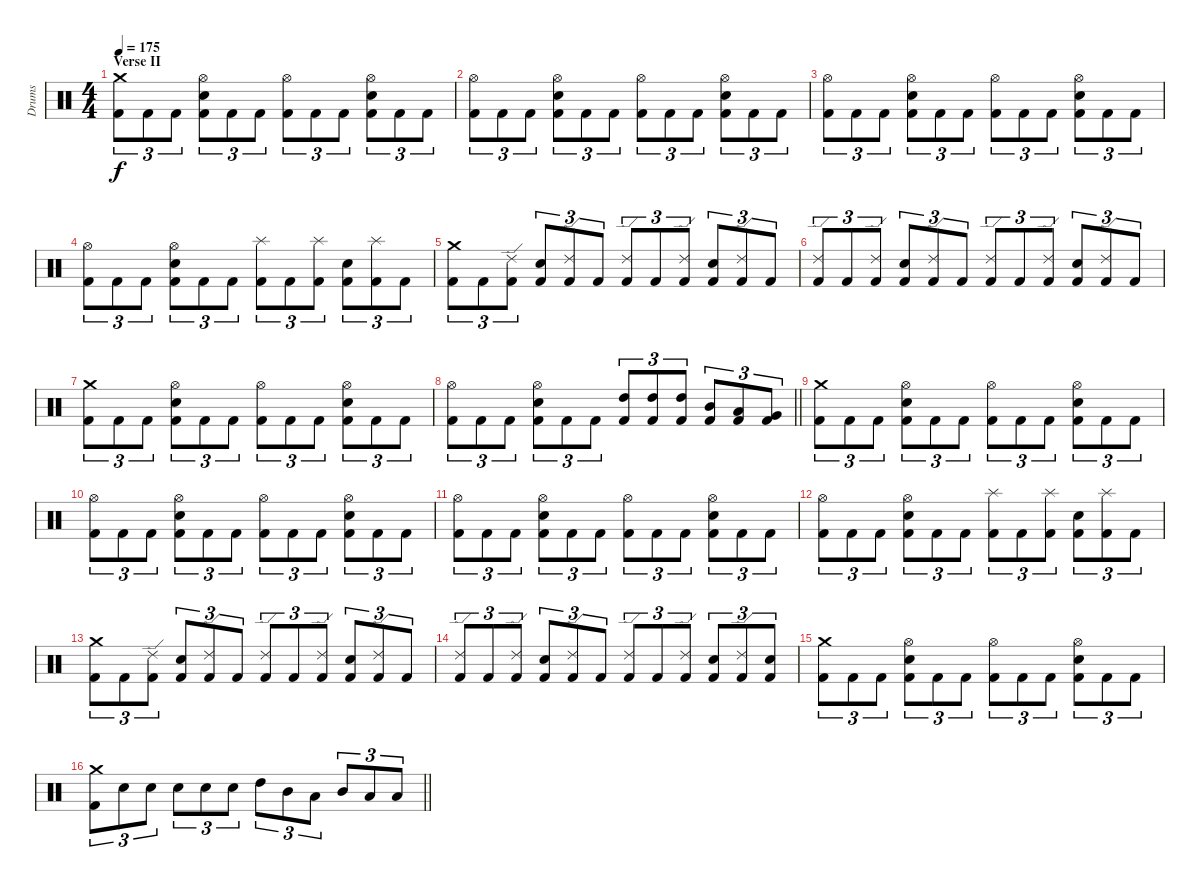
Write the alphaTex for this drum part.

\track ("Drums" "Drums") {instrument percussion}
\staff {score}
\articulation defaults
\ts (4 4)
\section ("" "Verse II")
\tempo 175
\clef neutral
\ks c
("Kick (hit) 2" "Crash medium (hit)").8{tu (3 2) dy f} "Kick (hit) 2".8{tu (3 2)} "Kick (hit) 2".8{tu (3 2)} ("Kick (hit) 2" "Snare (hit) 2" "Hi-Hat (open)").8{tu (3 2)} "Kick (hit) 2".8{tu (3 2)} "Kick (hit) 2".8{tu (3 2)} ("Kick (hit) 2" "Hi-Hat (open)").8{tu (3 2)} "Kick (hit) 2".8{tu (3 2)} "Kick (hit) 2".8{tu (3 2)} ("Kick (hit) 2" "Snare (hit) 2" "Hi-Hat (open)").8{tu (3 2)} "Kick (hit) 2".8{tu (3 2)} "Kick (hit) 2".8{tu (3 2)} |
("Kick (hit) 2" "Hi-Hat (open)").8{tu (3 2)} "Kick (hit) 2".8{tu (3 2)} "Kick (hit) 2".8{tu (3 2)} ("Kick (hit) 2" "Snare (hit) 2" "Hi-Hat (open)").8{tu (3 2)} "Kick (hit) 2".8{tu (3 2)} "Kick (hit) 2".8{tu (3 2)} ("Kick (hit) 2" "Hi-Hat (open)").8{tu (3 2)} "Kick (hit) 2".8{tu (3 2)} "Kick (hit) 2".8{tu (3 2)} ("Kick (hit) 2" "Snare (hit) 2" "Hi-Hat (open)").8{tu (3 2)} "Kick (hit) 2".8{tu (3 2)} "Kick (hit) 2".8{tu (3 2)} |
("Kick (hit) 2" "Hi-Hat (open)").8{tu (3 2)} "Kick (hit) 2".8{tu (3 2)} "Kick (hit) 2".8{tu (3 2)} ("Kick (hit) 2" "Snare (hit) 2" "Hi-Hat (open)").8{tu (3 2)} "Kick (hit) 2".8{tu (3 2)} "Kick (hit) 2".8{tu (3 2)} ("Kick (hit) 2" "Hi-Hat (open)").8{tu (3 2)} "Kick (hit) 2".8{tu (3 2)} "Kick (hit) 2".8{tu (3 2)} ("Kick (hit) 2" "Snare (hit) 2" "Hi-Hat (open)").8{tu (3 2)} "Kick (hit) 2".8{tu (3 2)} "Kick (hit) 2".8{tu (3 2)} |
("Kick (hit) 2" "Hi-Hat (open)").8{tu (3 2)} "Kick (hit) 2".8{tu (3 2)} "Kick (hit) 2".8{tu (3 2)} ("Kick (hit) 2" "Snare (hit) 2" "Hi-Hat (open)").8{tu (3 2)} "Kick (hit) 2".8{tu (3 2)} "Kick (hit) 2".8{tu (3 2)} ("Kick (hit) 2" "Splash (hit)").8{tu (3 2)} "Kick (hit) 2".8{tu (3 2)} ("Kick (hit) 2" "Splash (hit)").8{tu (3 2)} ("Kick (hit) 2" "Snare (hit) 2").8{tu (3 2)} ("Kick (hit) 2" "Splash (hit)").8{tu (3 2)} "Kick (hit) 2".8{tu (3 2)} |
("Kick (hit) 2" "Crash medium (hit)").8{tu (3 2)} "Kick (hit) 2".8{tu (3 2)} ("Kick (hit) 2" "Ride (edge) 2").8{tu (3 2)} ("Kick (hit) 2" "Snare (hit) 2").8{tu (3 2)} ("Kick (hit) 2" "Ride (edge) 2").8{tu (3 2)} "Kick (hit) 2".8{tu (3 2)} ("Kick (hit) 2" "Ride (edge) 2").8{tu (3 2)} "Kick (hit) 2".8{tu (3 2)} ("Kick (hit) 2" "Ride (edge) 2").8{tu (3 2)} ("Kick (hit) 2" "Snare (hit) 2").8{tu (3 2)} ("Kick (hit) 2" "Ride (edge) 2").8{tu (3 2)} "Kick (hit) 2".8{tu (3 2)} |
("Kick (hit) 2" "Ride (edge) 2").8{tu (3 2)} "Kick (hit) 2".8{tu (3 2)} ("Kick (hit) 2" "Ride (edge) 2").8{tu (3 2)} ("Kick (hit) 2" "Snare (hit) 2").8{tu (3 2)} ("Kick (hit) 2" "Ride (edge) 2").8{tu (3 2)} "Kick (hit) 2".8{tu (3 2)} ("Kick (hit) 2" "Ride (edge) 2").8{tu (3 2)} "Kick (hit) 2".8{tu (3 2)} ("Kick (hit) 2" "Ride (edge) 2").8{tu (3 2)} ("Kick (hit) 2" "Snare (hit) 2").8{tu (3 2)} ("Kick (hit) 2" "Ride (edge) 2").8{tu (3 2)} "Kick (hit) 2".8{tu (3 2)} |
("Kick (hit) 2" "Crash medium (hit)").8{tu (3 2)} "Kick (hit) 2".8{tu (3 2)} "Kick (hit) 2".8{tu (3 2)} ("Kick (hit) 2" "Snare (hit) 2" "Hi-Hat (open)").8{tu (3 2)} "Kick (hit) 2".8{tu (3 2)} "Kick (hit) 2".8{tu (3 2)} ("Kick (hit) 2" "Hi-Hat (open)").8{tu (3 2)} "Kick (hit) 2".8{tu (3 2)} "Kick (hit) 2".8{tu (3 2)} ("Kick (hit) 2" "Snare (hit) 2" "Hi-Hat (open)").8{tu (3 2)} "Kick (hit) 2".8{tu (3 2)} "Kick (hit) 2".8{tu (3 2)} |
\barLineRight lightlight
("Kick (hit) 2" "Hi-Hat (open)").8{tu (3 2)} "Kick (hit) 2".8{tu (3 2)} "Kick (hit) 2".8{tu (3 2)} ("Kick (hit) 2" "Snare (hit) 2" "Hi-Hat (open)").8{tu (3 2)} "Kick (hit) 2".8{tu (3 2)} "Kick (hit) 2".8{tu (3 2)} ("Kick (hit) 2" "High Tom (hit)").8{tu (3 2)} ("Kick (hit) 2" "High Tom (hit)").8{tu (3 2)} ("Kick (hit) 2" "High Tom (hit)").8{tu (3 2)} ("Kick (hit) 2" "Mid Tom (hit)").8{tu (3 2)} ("Kick (hit) 2" "Low Tom (hit)").8{tu (3 2)} ("Kick (hit) 2" "Very Low Tom (hit)").8{tu (3 2)} |
\section ("" "")
("Kick (hit) 2" "Crash medium (hit)").8{tu (3 2)} "Kick (hit) 2".8{tu (3 2)} "Kick (hit) 2".8{tu (3 2)} ("Kick (hit) 2" "Snare (hit) 2" "Hi-Hat (open)").8{tu (3 2)} "Kick (hit) 2".8{tu (3 2)} "Kick (hit) 2".8{tu (3 2)} ("Kick (hit) 2" "Hi-Hat (open)").8{tu (3 2)} "Kick (hit) 2".8{tu (3 2)} "Kick (hit) 2".8{tu (3 2)} ("Kick (hit) 2" "Snare (hit) 2" "Hi-Hat (open)").8{tu (3 2)} "Kick (hit) 2".8{tu (3 2)} "Kick (hit) 2".8{tu (3 2)} |
("Kick (hit) 2" "Hi-Hat (open)").8{tu (3 2)} "Kick (hit) 2".8{tu (3 2)} "Kick (hit) 2".8{tu (3 2)} ("Kick (hit) 2" "Snare (hit) 2" "Hi-Hat (open)").8{tu (3 2)} "Kick (hit) 2".8{tu (3 2)} "Kick (hit) 2".8{tu (3 2)} ("Kick (hit) 2" "Hi-Hat (open)").8{tu (3 2)} "Kick (hit) 2".8{tu (3 2)} "Kick (hit) 2".8{tu (3 2)} ("Kick (hit) 2" "Snare (hit) 2" "Hi-Hat (open)").8{tu (3 2)} "Kick (hit) 2".8{tu (3 2)} "Kick (hit) 2".8{tu (3 2)} |
("Kick (hit) 2" "Hi-Hat (open)").8{tu (3 2)} "Kick (hit) 2".8{tu (3 2)} "Kick (hit) 2".8{tu (3 2)} ("Kick (hit) 2" "Snare (hit) 2" "Hi-Hat (open)").8{tu (3 2)} "Kick (hit) 2".8{tu (3 2)} "Kick (hit) 2".8{tu (3 2)} ("Kick (hit) 2" "Hi-Hat (open)").8{tu (3 2)} "Kick (hit) 2".8{tu (3 2)} "Kick (hit) 2".8{tu (3 2)} ("Kick (hit) 2" "Snare (hit) 2" "Hi-Hat (open)").8{tu (3 2)} "Kick (hit) 2".8{tu (3 2)} "Kick (hit) 2".8{tu (3 2)} |
("Kick (hit) 2" "Hi-Hat (open)").8{tu (3 2)} "Kick (hit) 2".8{tu (3 2)} "Kick (hit) 2".8{tu (3 2)} ("Kick (hit) 2" "Snare (hit) 2" "Hi-Hat (open)").8{tu (3 2)} "Kick (hit) 2".8{tu (3 2)} "Kick (hit) 2".8{tu (3 2)} ("Kick (hit) 2" "Splash (hit)").8{tu (3 2)} "Kick (hit) 2".8{tu (3 2)} ("Kick (hit) 2" "Splash (hit)").8{tu (3 2)} ("Kick (hit) 2" "Snare (hit) 2").8{tu (3 2)} ("Kick (hit) 2" "Splash (hit)").8{tu (3 2)} "Kick (hit) 2".8{tu (3 2)} |
("Kick (hit) 2" "Crash medium (hit)").8{tu (3 2)} "Kick (hit) 2".8{tu (3 2)} ("Kick (hit) 2" "Ride (edge) 2").8{tu (3 2)} ("Kick (hit) 2" "Snare (hit) 2").8{tu (3 2)} ("Kick (hit) 2" "Ride (edge) 2").8{tu (3 2)} "Kick (hit) 2".8{tu (3 2)} ("Kick (hit) 2" "Ride (edge) 2").8{tu (3 2)} "Kick (hit) 2".8{tu (3 2)} ("Kick (hit) 2" "Ride (edge) 2").8{tu (3 2)} ("Kick (hit) 2" "Snare (hit) 2").8{tu (3 2)} ("Kick (hit) 2" "Ride (edge) 2").8{tu (3 2)} "Kick (hit) 2".8{tu (3 2)} |
("Kick (hit) 2" "Ride (edge) 2").8{tu (3 2)} "Kick (hit) 2".8{tu (3 2)} ("Kick (hit) 2" "Ride (edge) 2").8{tu (3 2)} ("Kick (hit) 2" "Snare (hit) 2").8{tu (3 2)} ("Kick (hit) 2" "Ride (edge) 2").8{tu (3 2)} "Kick (hit) 2".8{tu (3 2)} ("Kick (hit) 2" "Ride (edge) 2").8{tu (3 2)} "Kick (hit) 2".8{tu (3 2)} ("Kick (hit) 2" "Ride (edge) 2").8{tu (3 2)} ("Kick (hit) 2" "Snare (hit) 2").8{tu (3 2)} ("Kick (hit) 2" "Ride (edge) 2").8{tu (3 2)} ("Kick (hit) 2" "Snare (hit) 2").8{tu (3 2)} |
("Kick (hit) 2" "Crash medium (hit)").8{tu (3 2)} "Kick (hit) 2".8{tu (3 2)} "Kick (hit) 2".8{tu (3 2)} ("Kick (hit) 2" "Snare (hit) 2" "Hi-Hat (open)").8{tu (3 2)} "Kick (hit) 2".8{tu (3 2)} "Kick (hit) 2".8{tu (3 2)} ("Kick (hit) 2" "Hi-Hat (open)").8{tu (3 2)} "Kick (hit) 2".8{tu (3 2)} "Kick (hit) 2".8{tu (3 2)} ("Kick (hit) 2" "Snare (hit) 2" "Hi-Hat (open)").8{tu (3 2)} "Kick (hit) 2".8{tu (3 2)} "Kick (hit) 2".8{tu (3 2)} |
\barLineRight lightlight
("Kick (hit) 2" "Crash medium (hit)").8{tu (3 2)} "Snare (hit) 2".8{tu (3 2)} "Snare (hit) 2".8{tu (3 2)} "Snare (hit) 2".8{tu (3 2)} "Snare (hit) 2".8{tu (3 2)} "Snare (hit) 2".8{tu (3 2)} "High Tom (hit)".8{tu (3 2)} "Mid Tom (hit)".8{tu (3 2)} "Low Tom (hit)".8{tu (3 2)} "Mid Tom (hit)".8{tu (3 2)} "Low Tom (hit)".8{tu (3 2)} "Low Tom (hit)".8{tu (3 2)}
